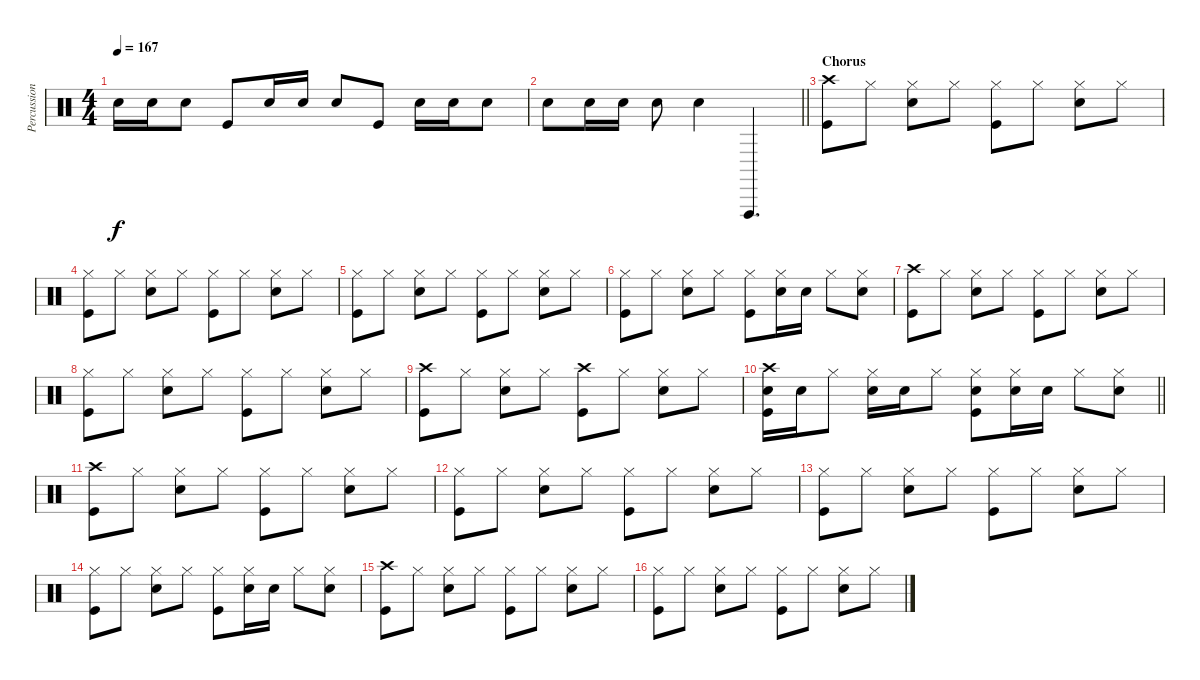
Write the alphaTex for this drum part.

\track ("Percussion" "Percussion") {instrument percussion}
\staff {score}
\articulation defaults
\ts (4 4)
\tempo 167
\clef neutral
\ks c "Electric Snare (hit)".16{dy f} "Electric Snare (hit)".16 "Electric Snare (hit)".8 "Kick (hit)".8 "Electric Snare (hit)".16 "Electric Snare (hit)".16 "Electric Snare (hit)".8 "Kick (hit)".8 "Electric Snare (hit)".16 "Electric Snare (hit)".16 "Electric Snare (hit)".8
|
\barLineRight lightlight "Electric Snare (hit)".8 "Electric Snare (hit)".16 "Electric Snare (hit)".16 "Electric Snare (hit)".8 "Electric Snare (hit)".4 "Vibraslap (hit)".4{d}
|
\section ("" "Chorus")
("Crash high (hit)" "Kick (hit)").8 "Hi-Hat (closed)".8 ("Hi-Hat (closed)" "Electric Snare (hit)").8 "Hi-Hat (closed)".8 ("Hi-Hat (closed)" "Kick (hit)").8 "Hi-Hat (closed)".8 ("Hi-Hat (closed)" "Electric Snare (hit)").8 "Hi-Hat (closed)".8 |
("Hi-Hat (closed)" "Kick (hit)").8 "Hi-Hat (closed)".8 ("Hi-Hat (closed)" "Electric Snare (hit)").8 "Hi-Hat (closed)".8 ("Hi-Hat (closed)" "Kick (hit)").8 "Hi-Hat (closed)".8 ("Hi-Hat (closed)" "Electric Snare (hit)").8 "Hi-Hat (closed)".8 |
("Hi-Hat (closed)" "Kick (hit)").8 "Hi-Hat (closed)".8 ("Hi-Hat (closed)" "Electric Snare (hit)").8 "Hi-Hat (closed)".8 ("Hi-Hat (closed)" "Kick (hit)").8 "Hi-Hat (closed)".8 ("Hi-Hat (closed)" "Electric Snare (hit)").8 "Hi-Hat (closed)".8 |
("Hi-Hat (closed)" "Kick (hit)").8 "Hi-Hat (closed)".8 ("Hi-Hat (closed)" "Electric Snare (hit)").8 "Hi-Hat (closed)".8 ("Hi-Hat (closed)" "Kick (hit)").8 ("Hi-Hat (closed)" "Electric Snare (hit)").16 "Electric Snare (hit)".16 "Hi-Hat (closed)".8 ("Hi-Hat (closed)" "Electric Snare (hit)").8 |
("Crash high (hit)" "Kick (hit)").8 "Hi-Hat (closed)".8 ("Hi-Hat (closed)" "Electric Snare (hit)").8 "Hi-Hat (closed)".8 ("Hi-Hat (closed)" "Kick (hit)").8 "Hi-Hat (closed)".8 ("Hi-Hat (closed)" "Electric Snare (hit)").8 "Hi-Hat (closed)".8 |
("Hi-Hat (closed)" "Kick (hit)").8 "Hi-Hat (closed)".8 ("Hi-Hat (closed)" "Electric Snare (hit)").8 "Hi-Hat (closed)".8 ("Hi-Hat (closed)" "Kick (hit)").8 "Hi-Hat (closed)".8 ("Hi-Hat (closed)" "Electric Snare (hit)").8 "Hi-Hat (closed)".8 |
("Crash high (hit)" "Kick (hit)").8 "Hi-Hat (closed)".8 ("Hi-Hat (closed)" "Electric Snare (hit)").8 "Hi-Hat (closed)".8 ("Crash high (hit)" "Kick (hit)").8 "Hi-Hat (closed)".8 ("Hi-Hat (closed)" "Electric Snare (hit)").8 "Hi-Hat (closed)".8 |
\barLineRight lightlight
("Crash high (hit)" "Electric Snare (hit)" "Kick (hit)").16 "Electric Snare (hit)".16 "Hi-Hat (closed)".8 ("Hi-Hat (closed)" "Electric Snare (hit)").16 "Electric Snare (hit)".16 "Hi-Hat (closed)".8 ("Hi-Hat (closed)" "Electric Snare (hit)" "Kick (hit)").8 ("Hi-Hat (closed)" "Electric Snare (hit)").16 "Electric Snare (hit)".16 "Hi-Hat (closed)".8 ("Hi-Hat (closed)" "Electric Snare (hit)").8 |
("Crash high (hit)" "Kick (hit)").8 "Hi-Hat (closed)".8 ("Hi-Hat (closed)" "Electric Snare (hit)").8 "Hi-Hat (closed)".8 ("Hi-Hat (closed)" "Kick (hit)").8 "Hi-Hat (closed)".8 ("Hi-Hat (closed)" "Electric Snare (hit)").8 "Hi-Hat (closed)".8 |
("Hi-Hat (closed)" "Kick (hit)").8 "Hi-Hat (closed)".8 ("Hi-Hat (closed)" "Electric Snare (hit)").8 "Hi-Hat (closed)".8 ("Hi-Hat (closed)" "Kick (hit)").8 "Hi-Hat (closed)".8 ("Hi-Hat (closed)" "Electric Snare (hit)").8 "Hi-Hat (closed)".8 |
("Hi-Hat (closed)" "Kick (hit)").8 "Hi-Hat (closed)".8 ("Hi-Hat (closed)" "Electric Snare (hit)").8 "Hi-Hat (closed)".8 ("Hi-Hat (closed)" "Kick (hit)").8 "Hi-Hat (closed)".8 ("Hi-Hat (closed)" "Electric Snare (hit)").8 "Hi-Hat (closed)".8 |
("Hi-Hat (closed)" "Kick (hit)").8 "Hi-Hat (closed)".8 ("Hi-Hat (closed)" "Electric Snare (hit)").8 "Hi-Hat (closed)".8 ("Hi-Hat (closed)" "Kick (hit)").8 ("Hi-Hat (closed)" "Electric Snare (hit)").16 "Electric Snare (hit)".16 "Hi-Hat (closed)".8 ("Hi-Hat (closed)" "Electric Snare (hit)").8 |
("Crash high (hit)" "Kick (hit)").8 "Hi-Hat (closed)".8 ("Hi-Hat (closed)" "Electric Snare (hit)").8 "Hi-Hat (closed)".8 ("Hi-Hat (closed)" "Kick (hit)").8 "Hi-Hat (closed)".8 ("Hi-Hat (closed)" "Electric Snare (hit)").8 "Hi-Hat (closed)".8 |
("Hi-Hat (closed)" "Kick (hit)").8 "Hi-Hat (closed)".8 ("Hi-Hat (closed)" "Electric Snare (hit)").8 "Hi-Hat (closed)".8 ("Hi-Hat (closed)" "Kick (hit)").8 "Hi-Hat (closed)".8 ("Hi-Hat (closed)" "Electric Snare (hit)").8 "Hi-Hat (closed)".8
